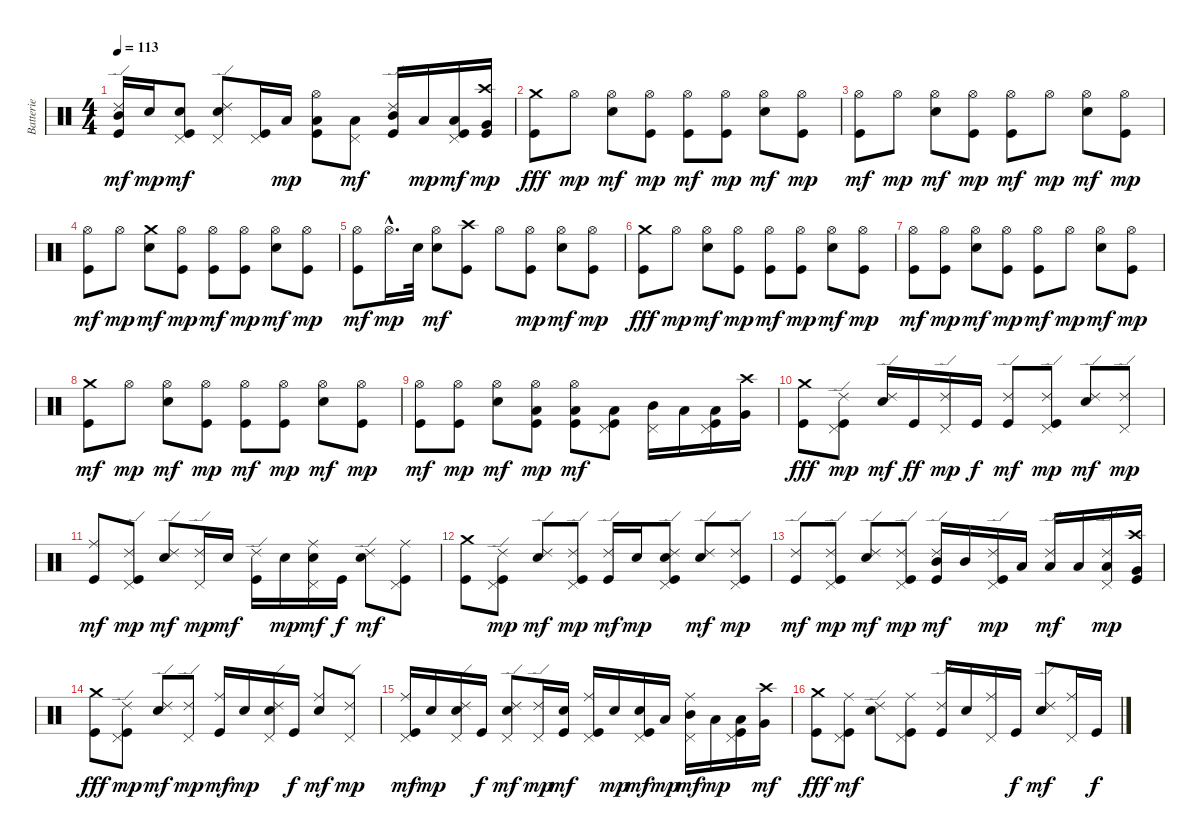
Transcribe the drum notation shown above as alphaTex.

\track ("Batterie" "Batterie") {instrument percussion}
\staff {score}
\articulation defaults
\ts (4 4)
\tempo 113
\clef neutral
\ks c
("Kick (hit)" "Ride (edge) 2" "Mid Tom (hit)").16{dy mf} "Electric Snare (hit)".16{dy mp} ("Kick (hit)" "Electric Snare (hit)" "Pedal Hi-Hat (hit)").8{dy mf} ("Electric Snare (hit)" "Pedal Hi-Hat (hit)" "Ride (edge) 2").8 ("Kick (hit)" "Pedal Hi-Hat (hit)").16 "Low Tom (hit)".16{dy mp} ("Kick (hit)" "Hi-Hat (open)" "Low Tom (hit)").8 ("Pedal Hi-Hat (hit)" "Low Tom (hit)").8{dy mf} ("Kick (hit)" "Ride (edge) 2" "Mid Tom (hit)").16 "Low Tom (hit)".16{dy mp} ("Kick (hit)" "Pedal Hi-Hat (hit)" "Low Tom (hit)").16{dy mf} ("Kick (hit)" "Crash high (hit)" "Very Low Tom (hit)").16{dy mp} |
("Kick (hit)" "Crash medium (hit)").8{dy fff} "Hi-Hat (open)".8{dy mp} ("Electric Snare (hit)" "Hi-Hat (open)").8{dy mf} ("Kick (hit)" "Hi-Hat (open)").8{dy mp} ("Kick (hit)" "Hi-Hat (open)").8{dy mf} ("Kick (hit)" "Hi-Hat (open)").8{dy mp} ("Electric Snare (hit)" "Hi-Hat (open)").8{dy mf} ("Kick (hit)" "Hi-Hat (open)").8{dy mp} |
("Kick (hit)" "Hi-Hat (open)").8{dy mf} "Hi-Hat (open)".8{dy mp} ("Electric Snare (hit)" "Hi-Hat (open)").8{dy mf} ("Kick (hit)" "Hi-Hat (open)").8{dy mp} ("Kick (hit)" "Hi-Hat (open)").8{dy mf} "Hi-Hat (open)".8{dy mp} ("Electric Snare (hit)" "Hi-Hat (open)").8{dy mf} ("Kick (hit)" "Hi-Hat (open)").8{dy mp} |
("Kick (hit)" "Hi-Hat (open)").8{dy mf} "Hi-Hat (open)".8{dy mp} ("Electric Snare (hit)" "Crash medium (hit)").8{dy mf} ("Kick (hit)" "Hi-Hat (open)").8{dy mp} ("Kick (hit)" "Hi-Hat (open)").8{dy mf} ("Kick (hit)" "Hi-Hat (open)").8{dy mp} ("Electric Snare (hit)" "Hi-Hat (open)").8{dy mf} ("Kick (hit)" "Hi-Hat (open)").8{dy mp} |
("Kick (hit)" "Hi-Hat (open)").8{dy mf} "Hi-Hat (open)"{hac}.16{d dy mp} "Electric Snare (hit)".32 ("Electric Snare (hit)" "Hi-Hat (open)").8{dy mf} ("Kick (hit)" "Crash high (hit)").8 "Hi-Hat (open)".8 ("Kick (hit)" "Hi-Hat (open)").8{dy mp} ("Electric Snare (hit)" "Hi-Hat (open)").8{dy mf} ("Kick (hit)" "Hi-Hat (open)").8{dy mp} |
("Kick (hit)" "Crash medium (hit)").8{dy fff} "Hi-Hat (open)".8{dy mp} ("Electric Snare (hit)" "Hi-Hat (open)").8{dy mf} ("Kick (hit)" "Hi-Hat (open)").8{dy mp} ("Kick (hit)" "Hi-Hat (open)").8{dy mf} ("Kick (hit)" "Hi-Hat (open)").8{dy mp} ("Electric Snare (hit)" "Hi-Hat (open)").8{dy mf} ("Kick (hit)" "Hi-Hat (open)").8{dy mp} |
("Kick (hit)" "Hi-Hat (open)").8{dy mf} ("Kick (hit)" "Hi-Hat (open)").8{dy mp} ("Electric Snare (hit)" "Hi-Hat (open)").8{dy mf} ("Kick (hit)" "Hi-Hat (open)").8{dy mp} ("Kick (hit)" "Hi-Hat (open)").8{dy mf} "Hi-Hat (open)".8{dy mp} ("Electric Snare (hit)" "Hi-Hat (open)").8{dy mf} ("Kick (hit)" "Hi-Hat (open)").8{dy mp} |
("Kick (hit)" "Crash medium (hit)").8{dy mf} "Hi-Hat (open)".8{dy mp} ("Electric Snare (hit)" "Hi-Hat (open)").8{dy mf} ("Kick (hit)" "Hi-Hat (open)").8{dy mp} ("Kick (hit)" "Hi-Hat (open)").8{dy mf} ("Kick (hit)" "Hi-Hat (open)").8{dy mp} ("Electric Snare (hit)" "Hi-Hat (open)").8{dy mf} ("Kick (hit)" "Hi-Hat (open)").8{dy mp} |
("Kick (hit)" "Hi-Hat (open)").8{dy mf} ("Kick (hit)" "Hi-Hat (open)").8{dy mp} ("Electric Snare (hit)" "Hi-Hat (open)").8{dy mf} ("Kick (hit)" "Hi-Hat (open)" "Low Tom (hit)").8{dy mp} ("Kick (hit)" "Hi-Hat (open)" "Low Tom (hit)").8{dy mf} ("Kick (hit)" "Pedal Hi-Hat (hit)" "Low Tom (hit)").8 ("Pedal Hi-Hat (hit)" "Mid Tom (hit)").16 "Low Tom (hit)".16 ("Kick (hit)" "Pedal Hi-Hat (hit)" "Low Tom (hit)").16 ("Crash high (hit)" "Very Low Tom (hit)").16 |
("Kick (hit)" "Crash medium (hit)").8{dy fff} ("Kick (hit)" "Pedal Hi-Hat (hit)" "Ride (edge) 2").8{dy mp} ("Electric Snare (hit)" "Ride (edge) 2").16{dy mf} "Kick (hit)".16{dy ff} ("Pedal Hi-Hat (hit)" "Ride (edge) 2").16{dy mp} "Kick (hit)".16{dy f} ("Kick (hit)" "Ride (edge) 2").8{dy mf} ("Kick (hit)" "Pedal Hi-Hat (hit)" "Ride (edge) 2").8{dy mp} ("Electric Snare (hit)" "Ride (edge) 2").8{dy mf} ("Pedal Hi-Hat (hit)" "Ride (edge) 2").8{dy mp} |
("Kick (hit)" "Ride (middle)").8{dy mf} ("Kick (hit)" "Pedal Hi-Hat (hit)" "Ride (edge) 2").8{dy mp} ("Electric Snare (hit)" "Ride (edge) 2").8{dy mf} ("Pedal Hi-Hat (hit)" "Ride (edge) 2").16{dy mp} "Electric Snare (hit)".16{dy mf} ("Kick (hit)" "Ride (edge) 2").16 "Electric Snare (hit)".16{dy mp} ("Electric Snare (hit)" "Pedal Hi-Hat (hit)" "Ride (middle)").16{dy mf} "Kick (hit)".16{dy f} ("Electric Snare (hit)" "Ride (edge) 2").8{dy mf} ("Kick (hit)" "Pedal Hi-Hat (hit)" "Ride (middle)").8 |
("Kick (hit)" "Crash medium (hit)").8 ("Kick (hit)" "Pedal Hi-Hat (hit)" "Ride (edge) 2").8{dy mp} ("Electric Snare (hit)" "Ride (edge) 2").8{dy mf} ("Kick (hit)" "Pedal Hi-Hat (hit)" "Ride (edge) 2").8{dy mp} ("Kick (hit)" "Ride (edge) 2").16{dy mf} "Electric Snare (hit)".16{dy mp} ("Kick (hit)" "Electric Snare (hit)" "Pedal Hi-Hat (hit)" "Ride (edge) 2").8 ("Electric Snare (hit)" "Ride (edge) 2").8{dy mf} ("Kick (hit)" "Pedal Hi-Hat (hit)" "Ride (edge) 2").8{dy mp} |
("Kick (hit)" "Ride (edge) 2").8{dy mf} ("Kick (hit)" "Pedal Hi-Hat (hit)" "Ride (edge) 2").8{dy mp} ("Electric Snare (hit)" "Ride (edge) 2").8{dy mf} ("Kick (hit)" "Pedal Hi-Hat (hit)" "Ride (edge) 2").8{dy mp} ("Kick (hit)" "Ride (edge) 2" "Mid Tom (hit)").16{dy mf} "Mid Tom (hit)".16 ("Kick (hit)" "Pedal Hi-Hat (hit)" "Ride (edge) 2").16{dy mp} "Low Tom (hit)".16 ("Ride (edge) 2" "Low Tom (hit)").16{dy mf} "Low Tom (hit)".16 ("Pedal Hi-Hat (hit)" "Ride (edge) 2" "Low Tom (hit)").16{dy mp} ("Kick (hit)" "Crash high (hit)" "Very Low Tom (hit)").16 |
("Kick (hit)" "Crash medium (hit)").8{dy fff} ("Kick (hit)" "Pedal Hi-Hat (hit)" "Ride (edge) 2").8{dy mp} ("Electric Snare (hit)" "Ride (edge) 2").8{dy mf} ("Pedal Hi-Hat (hit)" "Ride (edge) 2").8{dy mp} ("Kick (hit)" "Ride (middle)").16{dy mf} "Electric Snare (hit)".16{dy mp} ("Electric Snare (hit)" "Pedal Hi-Hat (hit)" "Ride (edge) 2").16 "Kick (hit)".16{dy f} ("Electric Snare (hit)" "Ride (middle)").8{dy mf} ("Pedal Hi-Hat (hit)" "Ride (edge) 2").8{dy mp} |
("Kick (hit)" "Pedal Hi-Hat (hit)" "Ride (middle)").16{dy mf} "Electric Snare (hit)".16{dy mp} ("Electric Snare (hit)" "Pedal Hi-Hat (hit)" "Ride (edge) 2").16 "Kick (hit)".16{dy f} ("Electric Snare (hit)" "Pedal Hi-Hat (hit)" "Ride (edge) 2").8{dy mf} ("Pedal Hi-Hat (hit)" "Ride (edge) 2").16{dy mp} ("Kick (hit)" "Electric Snare (hit)").16{dy mf} ("Kick (hit)" "Pedal Hi-Hat (hit)" "Ride (middle)").16 "Electric Snare (hit)".16{dy mp} ("Kick (hit)" "Electric Snare (hit)" "Pedal Hi-Hat (hit)").16{dy mf} "Low Tom (hit)".16{dy mp} ("Pedal Hi-Hat (hit)" "Ride (middle)" "Mid Tom (hit)").16{dy mf} "Low Tom (hit)".16{dy mp} ("Kick (hit)" "Pedal Hi-Hat (hit)" "Low Tom (hit)").16 ("Crash high (hit)" "Very Low Tom (hit)").16{dy mf} |
("Kick (hit)" "Crash medium (hit)").8{dy fff} ("Kick (hit)" "Pedal Hi-Hat (hit)" "Ride (middle)").8{dy mf} ("Electric Snare (hit)" "Ride (edge) 2").8 ("Kick (hit)" "Pedal Hi-Hat (hit)" "Ride (middle)").8 ("Kick (hit)" "Ride (edge) 2").16 "Electric Snare (hit)".16 ("Pedal Hi-Hat (hit)" "Ride (middle)").16 "Kick (hit)".16{dy f} ("Electric Snare (hit)" "Ride (edge) 2").8{dy mf} ("Pedal Hi-Hat (hit)" "Ride (middle)").16 "Kick (hit)".16{dy f}
